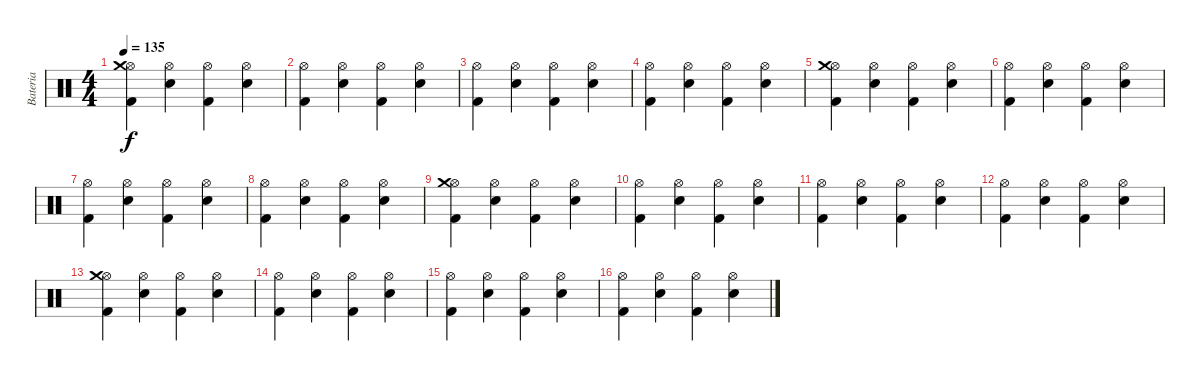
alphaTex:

\track ("Bateria" "Bateria") {instrument percussion}
\staff {score}
\articulation defaults
\ts (4 4)
\tempo 135
\clef neutral
\ks c
("Kick (hit) 2" "Hi-Hat (open)" "Crash medium (hit)").4{dy f} ("Electric Snare (hit)" "Hi-Hat (open)").4 ("Kick (hit) 2" "Hi-Hat (open)").4 ("Electric Snare (hit)" "Hi-Hat (open)").4 |
("Kick (hit) 2" "Hi-Hat (open)").4 ("Electric Snare (hit)" "Hi-Hat (open)").4 ("Kick (hit) 2" "Hi-Hat (open)").4 ("Electric Snare (hit)" "Hi-Hat (open)").4 |
("Kick (hit) 2" "Hi-Hat (open)").4 ("Electric Snare (hit)" "Hi-Hat (open)").4 ("Kick (hit) 2" "Hi-Hat (open)").4 ("Electric Snare (hit)" "Hi-Hat (open)").4 |
("Kick (hit) 2" "Hi-Hat (open)").4 ("Electric Snare (hit)" "Hi-Hat (open)").4 ("Kick (hit) 2" "Hi-Hat (open)").4 ("Electric Snare (hit)" "Hi-Hat (open)").4 |
("Kick (hit) 2" "Hi-Hat (open)" "Crash medium (hit)").4 ("Electric Snare (hit)" "Hi-Hat (open)").4 ("Kick (hit) 2" "Hi-Hat (open)").4 ("Electric Snare (hit)" "Hi-Hat (open)").4 |
("Kick (hit) 2" "Hi-Hat (open)").4 ("Electric Snare (hit)" "Hi-Hat (open)").4 ("Kick (hit) 2" "Hi-Hat (open)").4 ("Electric Snare (hit)" "Hi-Hat (open)").4 |
("Kick (hit) 2" "Hi-Hat (open)").4 ("Electric Snare (hit)" "Hi-Hat (open)").4 ("Kick (hit) 2" "Hi-Hat (open)").4 ("Electric Snare (hit)" "Hi-Hat (open)").4 |
("Kick (hit) 2" "Hi-Hat (open)").4 ("Electric Snare (hit)" "Hi-Hat (open)").4 ("Kick (hit) 2" "Hi-Hat (open)").4 ("Electric Snare (hit)" "Hi-Hat (open)").4 |
("Kick (hit) 2" "Hi-Hat (open)" "Crash medium (hit)").4 ("Electric Snare (hit)" "Hi-Hat (open)").4 ("Kick (hit) 2" "Hi-Hat (open)").4 ("Electric Snare (hit)" "Hi-Hat (open)").4 |
("Kick (hit) 2" "Hi-Hat (open)").4 ("Electric Snare (hit)" "Hi-Hat (open)").4 ("Kick (hit) 2" "Hi-Hat (open)").4 ("Electric Snare (hit)" "Hi-Hat (open)").4 |
("Kick (hit) 2" "Hi-Hat (open)").4 ("Electric Snare (hit)" "Hi-Hat (open)").4 ("Kick (hit) 2" "Hi-Hat (open)").4 ("Electric Snare (hit)" "Hi-Hat (open)").4 |
("Kick (hit) 2" "Hi-Hat (open)").4 ("Electric Snare (hit)" "Hi-Hat (open)").4 ("Kick (hit) 2" "Hi-Hat (open)").4 ("Electric Snare (hit)" "Hi-Hat (open)").4 |
("Kick (hit) 2" "Hi-Hat (open)" "Crash medium (hit)").4 ("Electric Snare (hit)" "Hi-Hat (open)").4 ("Kick (hit) 2" "Hi-Hat (open)").4 ("Electric Snare (hit)" "Hi-Hat (open)").4 |
("Kick (hit) 2" "Hi-Hat (open)").4 ("Electric Snare (hit)" "Hi-Hat (open)").4 ("Kick (hit) 2" "Hi-Hat (open)").4 ("Electric Snare (hit)" "Hi-Hat (open)").4 |
("Kick (hit) 2" "Hi-Hat (open)").4 ("Electric Snare (hit)" "Hi-Hat (open)").4 ("Kick (hit) 2" "Hi-Hat (open)").4 ("Electric Snare (hit)" "Hi-Hat (open)").4 |
("Kick (hit) 2" "Hi-Hat (open)").4 ("Electric Snare (hit)" "Hi-Hat (open)").4 ("Kick (hit) 2" "Hi-Hat (open)").4 ("Electric Snare (hit)" "Hi-Hat (open)").4
